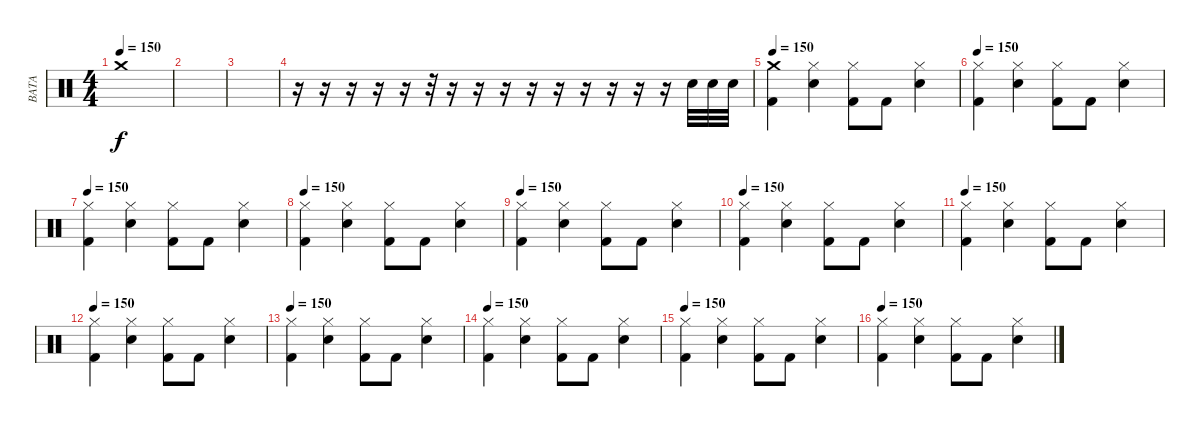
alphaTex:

\track ("BATA" "BATA") {instrument percussion}
\staff {score}
\articulation defaults
\ts (4 4)
\tempo 150
\clef neutral
\ks c "Crash medium (hit)".1{dy f}
|
|
|
r.16 r.16 r.16 r.16 r.16 r.32 r.16 r.16 r.16 r.16 r.16 r.16 r.16 r.16 r.16 "Snare (hit) 2".32 "Snare (hit) 2".32 "Snare (hit) 2".32 |
\tempo 150
("Crash medium (hit)" "Kick (hit) 2").4 ("Hi-Hat (closed)" "Snare (hit) 2").4 ("Hi-Hat (closed)" "Kick (hit) 2").8 "Kick (hit) 2".8 ("Hi-Hat (closed)" "Snare (hit) 2").4 |
\tempo 150
("Hi-Hat (closed)" "Kick (hit) 2").4 ("Hi-Hat (closed)" "Snare (hit) 2").4 ("Hi-Hat (closed)" "Kick (hit) 2").8 "Kick (hit) 2".8 ("Hi-Hat (closed)" "Snare (hit) 2").4 |
\tempo 150
("Hi-Hat (closed)" "Kick (hit) 2").4 ("Hi-Hat (closed)" "Snare (hit) 2").4 ("Hi-Hat (closed)" "Kick (hit) 2").8 "Kick (hit) 2".8 ("Hi-Hat (closed)" "Snare (hit) 2").4 |
\tempo 150
("Hi-Hat (closed)" "Kick (hit) 2").4 ("Hi-Hat (closed)" "Snare (hit) 2").4 ("Hi-Hat (closed)" "Kick (hit) 2").8 "Kick (hit) 2".8 ("Hi-Hat (closed)" "Snare (hit) 2").4 |
\tempo 150
("Hi-Hat (closed)" "Kick (hit) 2").4 ("Hi-Hat (closed)" "Snare (hit) 2").4 ("Hi-Hat (closed)" "Kick (hit) 2").8 "Kick (hit) 2".8 ("Hi-Hat (closed)" "Snare (hit) 2").4 |
\tempo 150
("Hi-Hat (closed)" "Kick (hit) 2").4 ("Hi-Hat (closed)" "Snare (hit) 2").4 ("Hi-Hat (closed)" "Kick (hit) 2").8 "Kick (hit) 2".8 ("Hi-Hat (closed)" "Snare (hit) 2").4 |
\tempo 150
("Hi-Hat (closed)" "Kick (hit) 2").4 ("Hi-Hat (closed)" "Snare (hit) 2").4 ("Hi-Hat (closed)" "Kick (hit) 2").8 "Kick (hit) 2".8 ("Hi-Hat (closed)" "Snare (hit) 2").4 |
\tempo 150
("Hi-Hat (closed)" "Kick (hit) 2").4 ("Hi-Hat (closed)" "Snare (hit) 2").4 ("Hi-Hat (closed)" "Kick (hit) 2").8 "Kick (hit) 2".8 ("Hi-Hat (closed)" "Snare (hit) 2").4 |
\tempo 150
("Hi-Hat (closed)" "Kick (hit) 2").4 ("Hi-Hat (closed)" "Snare (hit) 2").4 ("Hi-Hat (closed)" "Kick (hit) 2").8 "Kick (hit) 2".8 ("Hi-Hat (closed)" "Snare (hit) 2").4 |
\tempo 150
("Hi-Hat (closed)" "Kick (hit) 2").4 ("Hi-Hat (closed)" "Snare (hit) 2").4 ("Hi-Hat (closed)" "Kick (hit) 2").8 "Kick (hit) 2".8 ("Hi-Hat (closed)" "Snare (hit) 2").4 |
\tempo 150
("Hi-Hat (closed)" "Kick (hit) 2").4 ("Hi-Hat (closed)" "Snare (hit) 2").4 ("Hi-Hat (closed)" "Kick (hit) 2").8 "Kick (hit) 2".8 ("Hi-Hat (closed)" "Snare (hit) 2").4 |
\tempo 150
("Hi-Hat (closed)" "Kick (hit) 2").4 ("Hi-Hat (closed)" "Snare (hit) 2").4 ("Hi-Hat (closed)" "Kick (hit) 2").8 "Kick (hit) 2".8 ("Hi-Hat (closed)" "Snare (hit) 2").4
